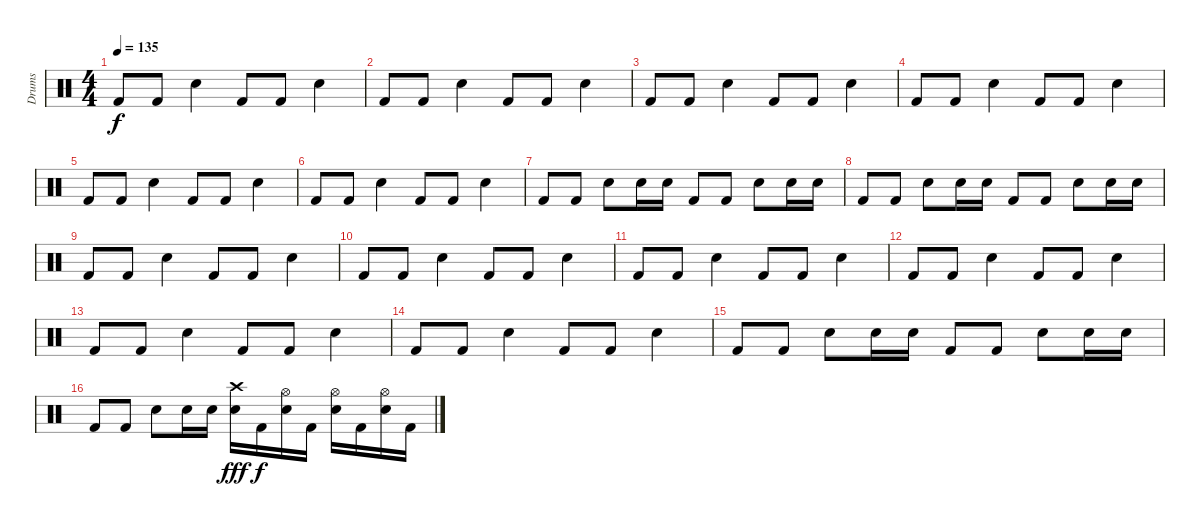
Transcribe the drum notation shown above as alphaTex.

\track ("Drums" "Drums") {instrument percussion}
\staff {score}
\articulation defaults
\ts (4 4)
\tempo 135
\clef neutral
\ks c "Kick (hit) 2".8{dy f} "Kick (hit) 2".8 "Snare (hit) 2".4 "Kick (hit) 2".8 "Kick (hit) 2".8 "Snare (hit) 2".4
|
"Kick (hit) 2".8 "Kick (hit) 2".8 "Snare (hit) 2".4 "Kick (hit) 2".8 "Kick (hit) 2".8 "Snare (hit) 2".4 |
"Kick (hit) 2".8 "Kick (hit) 2".8 "Snare (hit) 2".4 "Kick (hit) 2".8 "Kick (hit) 2".8 "Snare (hit) 2".4 |
"Kick (hit) 2".8 "Kick (hit) 2".8 "Snare (hit) 2".4 "Kick (hit) 2".8 "Kick (hit) 2".8 "Snare (hit) 2".4 |
"Kick (hit) 2".8 "Kick (hit) 2".8 "Snare (hit) 2".4 "Kick (hit) 2".8 "Kick (hit) 2".8 "Snare (hit) 2".4 |
"Kick (hit) 2".8 "Kick (hit) 2".8 "Snare (hit) 2".4 "Kick (hit) 2".8 "Kick (hit) 2".8 "Snare (hit) 2".4 |
"Kick (hit) 2".8 "Kick (hit) 2".8 "Snare (hit) 2".8 "Snare (hit) 2".16 "Snare (hit) 2".16 "Kick (hit) 2".8 "Kick (hit) 2".8 "Snare (hit) 2".8 "Snare (hit) 2".16 "Snare (hit) 2".16 |
"Kick (hit) 2".8 "Kick (hit) 2".8 "Snare (hit) 2".8 "Snare (hit) 2".16 "Snare (hit) 2".16 "Kick (hit) 2".8 "Kick (hit) 2".8 "Snare (hit) 2".8 "Snare (hit) 2".16 "Snare (hit) 2".16 |
"Kick (hit) 2".8 "Kick (hit) 2".8 "Snare (hit) 2".4 "Kick (hit) 2".8 "Kick (hit) 2".8 "Snare (hit) 2".4 |
"Kick (hit) 2".8 "Kick (hit) 2".8 "Snare (hit) 2".4 "Kick (hit) 2".8 "Kick (hit) 2".8 "Snare (hit) 2".4 |
"Kick (hit) 2".8 "Kick (hit) 2".8 "Snare (hit) 2".4 "Kick (hit) 2".8 "Kick (hit) 2".8 "Snare (hit) 2".4 |
"Kick (hit) 2".8 "Kick (hit) 2".8 "Snare (hit) 2".4 "Kick (hit) 2".8 "Kick (hit) 2".8 "Snare (hit) 2".4 |
"Kick (hit) 2".8 "Kick (hit) 2".8 "Snare (hit) 2".4 "Kick (hit) 2".8 "Kick (hit) 2".8 "Snare (hit) 2".4 |
"Kick (hit) 2".8 "Kick (hit) 2".8 "Snare (hit) 2".4 "Kick (hit) 2".8 "Kick (hit) 2".8 "Snare (hit) 2".4 |
"Kick (hit) 2".8 "Kick (hit) 2".8 "Snare (hit) 2".8 "Snare (hit) 2".16 "Snare (hit) 2".16 "Kick (hit) 2".8 "Kick (hit) 2".8 "Snare (hit) 2".8 "Snare (hit) 2".16 "Snare (hit) 2".16 |
"Kick (hit) 2".8 "Kick (hit) 2".8 "Snare (hit) 2".8 "Snare (hit) 2".16 "Snare (hit) 2".16 ("Crash high (hit)" "Snare (hit) 2").16{dy fff} "Kick (hit) 2".16{dy f} ("Hi-Hat (open)" "Snare (hit) 2").16 "Kick (hit) 2".16 ("Hi-Hat (open)" "Snare (hit) 2").16 "Kick (hit) 2".16 ("Hi-Hat (open)" "Snare (hit) 2").16 "Kick (hit) 2".16
